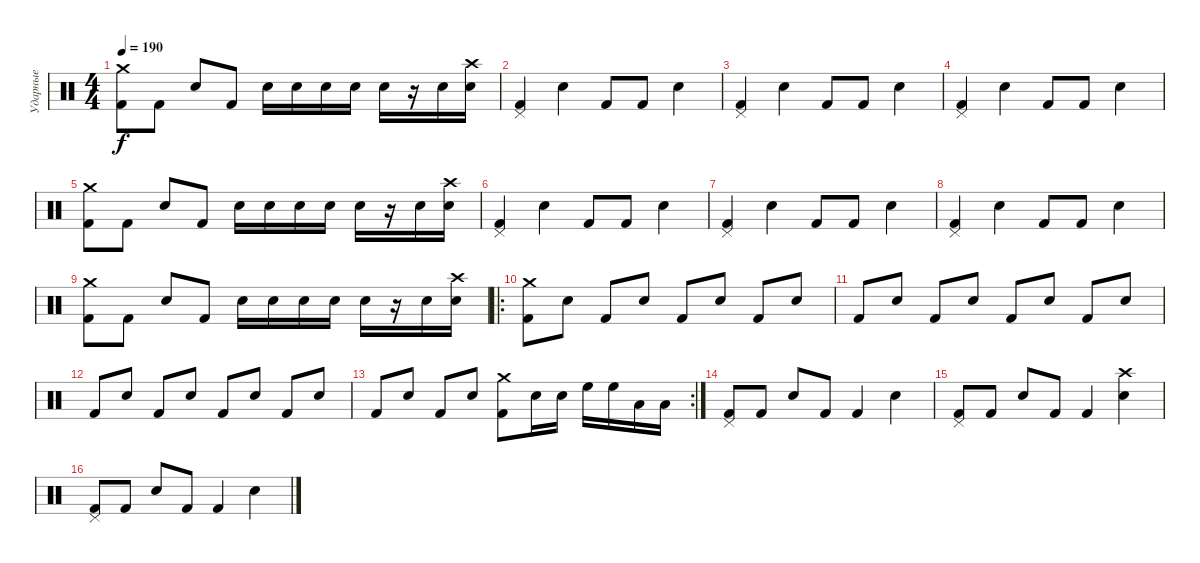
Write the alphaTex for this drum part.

\track ("Ударные" "Ударные") {instrument percussion}
\staff {score}
\articulation defaults
\ts (4 4)
\tempo 190
\clef neutral
\ks c
("Crash medium (hit)" "Kick (hit) 2").8{dy f} "Kick (hit) 2".8 "Electric Snare (hit)".8 "Kick (hit) 2".8 "Electric Snare (hit)".16 "Electric Snare (hit)".16 "Electric Snare (hit)".16 "Electric Snare (hit)".16 "Electric Snare (hit)".16 r.16 "Electric Snare (hit)".16 ("Electric Snare (hit)" "Crash high (hit)").16 |
("Pedal Hi-Hat (hit)" "Kick (hit) 2").4 "Electric Snare (hit)".4 "Kick (hit) 2".8 "Kick (hit) 2".8 "Electric Snare (hit)".4 |
("Pedal Hi-Hat (hit)" "Kick (hit) 2").4 "Electric Snare (hit)".4 "Kick (hit) 2".8 "Kick (hit) 2".8 "Electric Snare (hit)".4 |
("Pedal Hi-Hat (hit)" "Kick (hit) 2").4 "Electric Snare (hit)".4 "Kick (hit) 2".8 "Kick (hit) 2".8 "Electric Snare (hit)".4 |
("Crash medium (hit)" "Kick (hit) 2").8 "Kick (hit) 2".8 "Electric Snare (hit)".8 "Kick (hit) 2".8 "Electric Snare (hit)".16 "Electric Snare (hit)".16 "Electric Snare (hit)".16 "Electric Snare (hit)".16 "Electric Snare (hit)".16 r.16 "Electric Snare (hit)".16 ("Electric Snare (hit)" "Crash high (hit)").16 |
("Pedal Hi-Hat (hit)" "Kick (hit) 2").4 "Electric Snare (hit)".4 "Kick (hit) 2".8 "Kick (hit) 2".8 "Electric Snare (hit)".4 |
("Pedal Hi-Hat (hit)" "Kick (hit) 2").4 "Electric Snare (hit)".4 "Kick (hit) 2".8 "Kick (hit) 2".8 "Electric Snare (hit)".4 |
("Pedal Hi-Hat (hit)" "Kick (hit) 2").4 "Electric Snare (hit)".4 "Kick (hit) 2".8 "Kick (hit) 2".8 "Electric Snare (hit)".4 |
("Crash medium (hit)" "Kick (hit) 2").8 "Kick (hit) 2".8 "Electric Snare (hit)".8 "Kick (hit) 2".8 "Electric Snare (hit)".16 "Electric Snare (hit)".16 "Electric Snare (hit)".16 "Electric Snare (hit)".16 "Electric Snare (hit)".16 r.16 "Electric Snare (hit)".16 ("Electric Snare (hit)" "Crash high (hit)").16 |
\ro
("Kick (hit) 2" "Crash medium (hit)").8 "Electric Snare (hit)".8 "Kick (hit) 2".8 "Electric Snare (hit)".8 "Kick (hit) 2".8 "Electric Snare (hit)".8 "Kick (hit) 2".8 "Electric Snare (hit)".8 |
"Kick (hit) 2".8 "Electric Snare (hit)".8 "Kick (hit) 2".8 "Electric Snare (hit)".8 "Kick (hit) 2".8 "Electric Snare (hit)".8 "Kick (hit) 2".8 "Electric Snare (hit)".8 |
"Kick (hit) 2".8 "Electric Snare (hit)".8 "Kick (hit) 2".8 "Electric Snare (hit)".8 "Kick (hit) 2".8 "Electric Snare (hit)".8 "Kick (hit) 2".8 "Electric Snare (hit)".8 |
\rc 2 "Kick (hit) 2".8 "Electric Snare (hit)".8 "Kick (hit) 2".8 "Electric Snare (hit)".8
("Kick (hit) 2" "Crash medium (hit)").8 "Electric Snare (hit)".16 "Electric Snare (hit)".16 "High Floor Tom (hit)".16 "High Floor Tom (hit)".16 "Low Tom (hit)".16 "Low Tom (hit)".16 |
("Pedal Hi-Hat (hit)" "Kick (hit) 2").8 "Kick (hit) 2".8 "Electric Snare (hit)".8 "Kick (hit) 2".8 "Kick (hit) 2".4 "Electric Snare (hit)".4 |
("Pedal Hi-Hat (hit)" "Kick (hit) 2").8 "Kick (hit) 2".8 "Electric Snare (hit)".8 "Kick (hit) 2".8 "Kick (hit) 2".4 ("Crash high (hit)" "Electric Snare (hit)").4 |
("Pedal Hi-Hat (hit)" "Kick (hit) 2").8 "Kick (hit) 2".8 "Electric Snare (hit)".8 "Kick (hit) 2".8 "Kick (hit) 2".4 "Electric Snare (hit)".4
